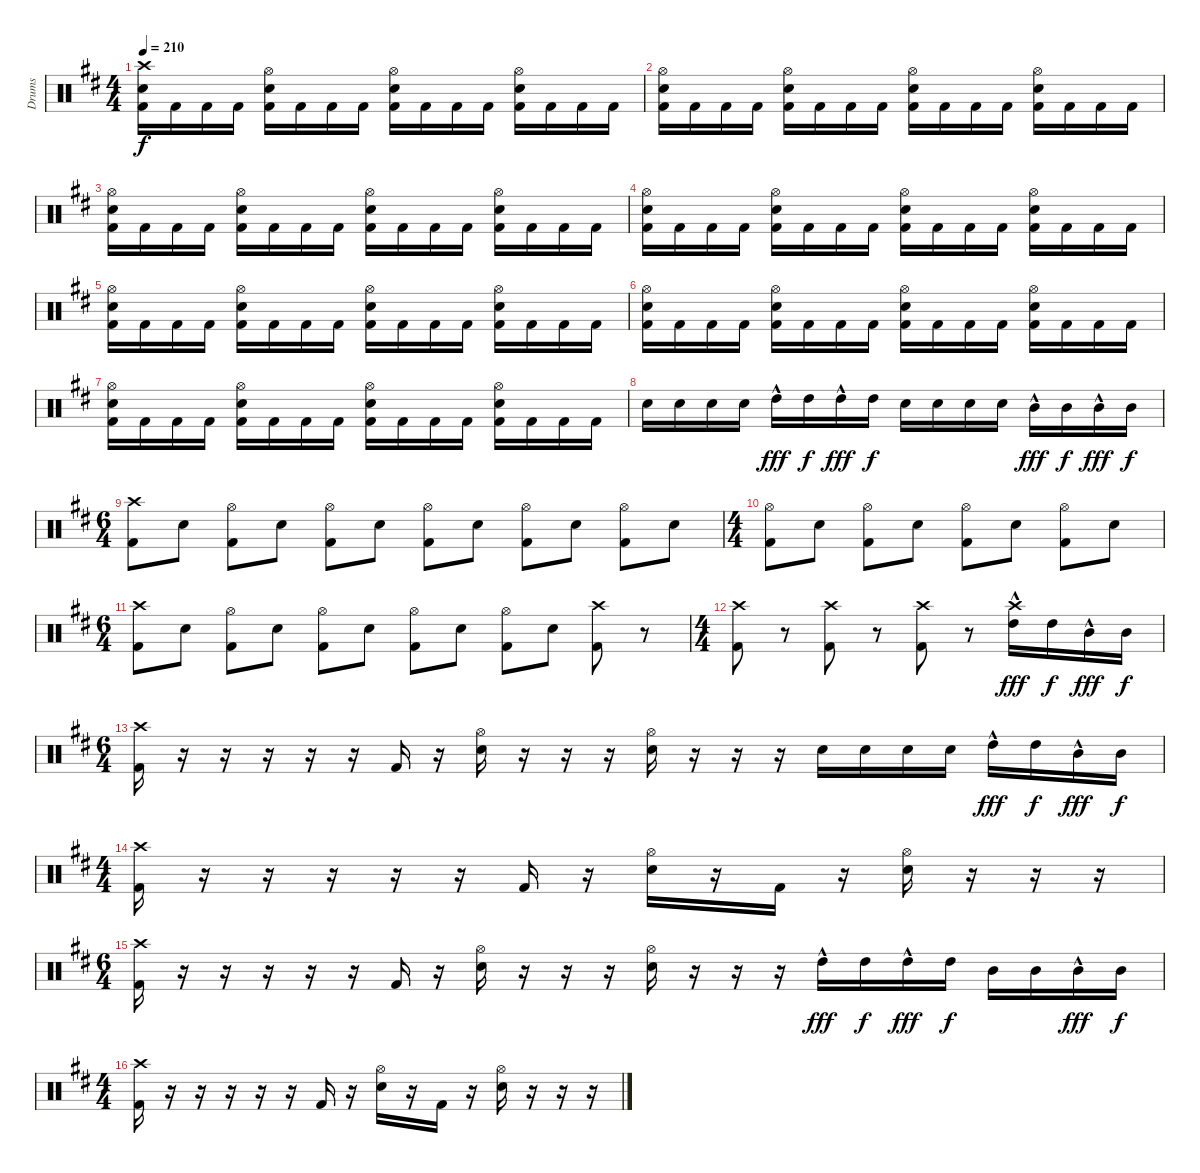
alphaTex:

\track ("Drums" "Drums") {instrument percussion}
\staff {score}
\articulation defaults
\ts (4 4)
\tempo 210
\clef neutral
\ks bminor
("Kick (hit) 2" "Electric Snare (hit)" "Crash high (hit)").16{dy f} "Kick (hit) 2".16 "Kick (hit) 2".16 "Kick (hit) 2".16 ("Kick (hit) 2" "Electric Snare (hit)" "Hi-Hat (open)").16 "Kick (hit) 2".16 "Kick (hit) 2".16 "Kick (hit) 2".16 ("Kick (hit) 2" "Electric Snare (hit)" "Hi-Hat (open)").16 "Kick (hit) 2".16 "Kick (hit) 2".16 "Kick (hit) 2".16 ("Kick (hit) 2" "Electric Snare (hit)" "Hi-Hat (open)").16 "Kick (hit) 2".16 "Kick (hit) 2".16 "Kick (hit) 2".16 |
("Kick (hit) 2" "Electric Snare (hit)" "Hi-Hat (open)").16 "Kick (hit) 2".16 "Kick (hit) 2".16 "Kick (hit) 2".16 ("Kick (hit) 2" "Electric Snare (hit)" "Hi-Hat (open)").16 "Kick (hit) 2".16 "Kick (hit) 2".16 "Kick (hit) 2".16 ("Kick (hit) 2" "Electric Snare (hit)" "Hi-Hat (open)").16 "Kick (hit) 2".16 "Kick (hit) 2".16 "Kick (hit) 2".16 ("Kick (hit) 2" "Electric Snare (hit)" "Hi-Hat (open)").16 "Kick (hit) 2".16 "Kick (hit) 2".16 "Kick (hit) 2".16 |
("Kick (hit) 2" "Electric Snare (hit)" "Hi-Hat (open)").16 "Kick (hit) 2".16 "Kick (hit) 2".16 "Kick (hit) 2".16 ("Kick (hit) 2" "Electric Snare (hit)" "Hi-Hat (open)").16 "Kick (hit) 2".16 "Kick (hit) 2".16 "Kick (hit) 2".16 ("Kick (hit) 2" "Electric Snare (hit)" "Hi-Hat (open)").16 "Kick (hit) 2".16 "Kick (hit) 2".16 "Kick (hit) 2".16 ("Kick (hit) 2" "Electric Snare (hit)" "Hi-Hat (open)").16 "Kick (hit) 2".16 "Kick (hit) 2".16 "Kick (hit) 2".16 |
("Kick (hit) 2" "Electric Snare (hit)" "Hi-Hat (open)").16 "Kick (hit) 2".16 "Kick (hit) 2".16 "Kick (hit) 2".16 ("Kick (hit) 2" "Electric Snare (hit)" "Hi-Hat (open)").16 "Kick (hit) 2".16 "Kick (hit) 2".16 "Kick (hit) 2".16 ("Kick (hit) 2" "Electric Snare (hit)" "Hi-Hat (open)").16 "Kick (hit) 2".16 "Kick (hit) 2".16 "Kick (hit) 2".16 ("Kick (hit) 2" "Electric Snare (hit)" "Hi-Hat (open)").16 "Kick (hit) 2".16 "Kick (hit) 2".16 "Kick (hit) 2".16 |
("Kick (hit) 2" "Electric Snare (hit)" "Hi-Hat (open)").16 "Kick (hit) 2".16 "Kick (hit) 2".16 "Kick (hit) 2".16 ("Kick (hit) 2" "Electric Snare (hit)" "Hi-Hat (open)").16 "Kick (hit) 2".16 "Kick (hit) 2".16 "Kick (hit) 2".16 ("Kick (hit) 2" "Electric Snare (hit)" "Hi-Hat (open)").16 "Kick (hit) 2".16 "Kick (hit) 2".16 "Kick (hit) 2".16 ("Kick (hit) 2" "Electric Snare (hit)" "Hi-Hat (open)").16 "Kick (hit) 2".16 "Kick (hit) 2".16 "Kick (hit) 2".16 |
("Kick (hit) 2" "Electric Snare (hit)" "Hi-Hat (open)").16 "Kick (hit) 2".16 "Kick (hit) 2".16 "Kick (hit) 2".16 ("Kick (hit) 2" "Electric Snare (hit)" "Hi-Hat (open)").16 "Kick (hit) 2".16 "Kick (hit) 2".16 "Kick (hit) 2".16 ("Kick (hit) 2" "Electric Snare (hit)" "Hi-Hat (open)").16 "Kick (hit) 2".16 "Kick (hit) 2".16 "Kick (hit) 2".16 ("Kick (hit) 2" "Electric Snare (hit)" "Hi-Hat (open)").16 "Kick (hit) 2".16 "Kick (hit) 2".16 "Kick (hit) 2".16 |
("Kick (hit) 2" "Electric Snare (hit)" "Hi-Hat (open)").16 "Kick (hit) 2".16 "Kick (hit) 2".16 "Kick (hit) 2".16 ("Kick (hit) 2" "Electric Snare (hit)" "Hi-Hat (open)").16 "Kick (hit) 2".16 "Kick (hit) 2".16 "Kick (hit) 2".16 ("Kick (hit) 2" "Electric Snare (hit)" "Hi-Hat (open)").16 "Kick (hit) 2".16 "Kick (hit) 2".16 "Kick (hit) 2".16 ("Kick (hit) 2" "Electric Snare (hit)" "Hi-Hat (open)").16 "Kick (hit) 2".16 "Kick (hit) 2".16 "Kick (hit) 2".16 |
"Electric Snare (hit)".16 "Electric Snare (hit)".16 "Electric Snare (hit)".16 "Electric Snare (hit)".16 "High Tom (hit)"{hac}.16{dy fff} "High Tom (hit)".16{dy f} "High Tom (hit)"{hac}.16{dy fff} "High Tom (hit)".16{dy f} "Electric Snare (hit)".16 "Electric Snare (hit)".16 "Electric Snare (hit)".16 "Electric Snare (hit)".16 "Mid Tom (hit)"{hac}.16{dy fff} "Mid Tom (hit)".16{dy f} "Mid Tom (hit)"{hac}.16{dy fff} "Mid Tom (hit)".16{dy f} |
\ts (6 4)
("Kick (hit) 2" "Crash high (hit)").8 "Electric Snare (hit)".8 ("Kick (hit) 2" "Hi-Hat (open)").8 "Electric Snare (hit)".8 ("Kick (hit) 2" "Hi-Hat (open)").8 "Electric Snare (hit)".8 ("Kick (hit) 2" "Hi-Hat (open)").8 "Electric Snare (hit)".8 ("Kick (hit) 2" "Hi-Hat (open)").8 "Electric Snare (hit)".8 ("Kick (hit) 2" "Hi-Hat (open)").8 "Electric Snare (hit)".8 |
\ts (4 4)
("Kick (hit) 2" "Hi-Hat (open)").8 "Electric Snare (hit)".8 ("Kick (hit) 2" "Hi-Hat (open)").8 "Electric Snare (hit)".8 ("Kick (hit) 2" "Hi-Hat (open)").8 "Electric Snare (hit)".8 ("Kick (hit) 2" "Hi-Hat (open)").8 "Electric Snare (hit)".8 |
\ts (6 4)
("Kick (hit) 2" "Crash high (hit)").8 "Electric Snare (hit)".8 ("Kick (hit) 2" "Hi-Hat (open)").8 "Electric Snare (hit)".8 ("Kick (hit) 2" "Hi-Hat (open)").8 "Electric Snare (hit)".8 ("Kick (hit) 2" "Hi-Hat (open)").8 "Electric Snare (hit)".8 ("Kick (hit) 2" "Hi-Hat (open)").8 "Electric Snare (hit)".8 ("Kick (hit) 2" "Crash high (hit)").8 r.8 |
\ts (4 4)
("Kick (hit) 2" "Crash high (hit)").8 r.8 ("Kick (hit) 2" "Crash high (hit)").8 r.8 ("Kick (hit) 2" "Crash high (hit)").8 r.8 ("Crash high (hit)" "High Tom (hit)"{hac}).16{dy fff} "High Tom (hit)".16{dy f} "Mid Tom (hit)"{hac}.16{dy fff} "Mid Tom (hit)".16{dy f} |
\ts (6 4)
("Kick (hit) 2" "Crash high (hit)").16 r.16 r.16 r.16 r.16 r.16 "Kick (hit) 2".16 r.16 ("Electric Snare (hit)" "Hi-Hat (open)").16 r.16 r.16 r.16 ("Electric Snare (hit)" "Hi-Hat (open)").16 r.16 r.16 r.16 "Electric Snare (hit)".16 "Electric Snare (hit)".16 "Electric Snare (hit)".16 "Electric Snare (hit)".16 "High Tom (hit)"{hac}.16{dy fff} "High Tom (hit)".16{dy f} "Mid Tom (hit)"{hac}.16{dy fff} "Mid Tom (hit)".16{dy f} |
\ts (4 4)
("Kick (hit) 2" "Crash high (hit)").16 r.16 r.16 r.16 r.16 r.16 "Kick (hit) 2".16 r.16 ("Electric Snare (hit)" "Hi-Hat (open)").16 r.16 "Kick (hit) 2".16 r.16 ("Electric Snare (hit)" "Hi-Hat (open)").16 r.16 r.16 r.16 |
\ts (6 4)
("Kick (hit) 2" "Crash high (hit)").16 r.16 r.16 r.16 r.16 r.16 "Kick (hit) 2".16 r.16 ("Electric Snare (hit)" "Hi-Hat (open)").16 r.16 r.16 r.16 ("Electric Snare (hit)" "Hi-Hat (open)").16 r.16 r.16 r.16 "High Tom (hit)"{hac}.16{dy fff} "High Tom (hit)".16{dy f} "High Tom (hit)"{hac}.16{dy fff} "High Tom (hit)".16{dy f} "Mid Tom (hit)".16 "Mid Tom (hit)".16 "Mid Tom (hit)"{hac}.16{dy fff} "Mid Tom (hit)".16{dy f} |
\ts (4 4)
("Kick (hit) 2" "Crash high (hit)").16 r.16 r.16 r.16 r.16 r.16 "Kick (hit) 2".16 r.16 ("Electric Snare (hit)" "Hi-Hat (open)").16 r.16 "Kick (hit) 2".16 r.16 ("Electric Snare (hit)" "Hi-Hat (open)").16 r.16 r.16 r.16
